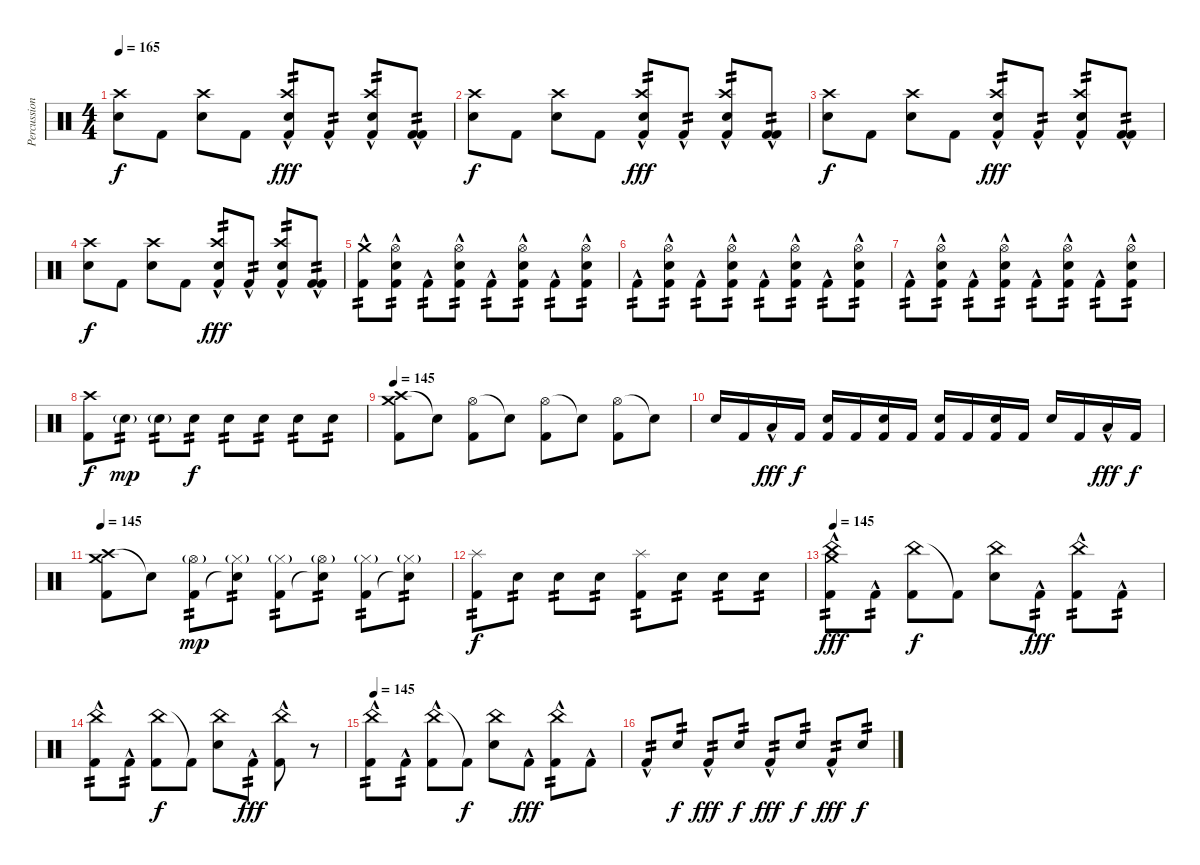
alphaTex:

\track ("Percussion" "Percussion") {instrument percussion}
\staff {score}
\articulation defaults
\ts (4 4)
\tempo 165
\clef neutral
\ks c
("Snare (hit) 2" "Crash high (hit)").8{dy f} "Kick (hit) 2".8 ("Snare (hit) 2" "Crash high (hit)").8 "Kick (hit) 2".8 ("Kick (hit) 2"{hac} "Snare (hit) 2" "Crash high (hit)").8{tp 2 dy fff} "Kick (hit) 2"{hac}.8{tp 2} ("Kick (hit) 2"{hac} "Snare (hit) 2" "Crash high (hit)").8{tp 2} ("Kick (hit) 2"{hac} "Kick (hit) 2").8{tp 2} |
("Snare (hit) 2" "Crash high (hit)").8{dy f} "Kick (hit) 2".8 ("Snare (hit) 2" "Crash high (hit)").8 "Kick (hit) 2".8 ("Kick (hit) 2"{hac} "Snare (hit) 2" "Crash high (hit)").8{tp 2 dy fff} "Kick (hit) 2"{hac}.8{tp 2} ("Kick (hit) 2"{hac} "Snare (hit) 2" "Crash high (hit)").8{tp 2} ("Kick (hit) 2"{hac} "Kick (hit) 2").8{tp 2} |
("Snare (hit) 2" "Crash high (hit)").8{dy f} "Kick (hit) 2".8 ("Snare (hit) 2" "Crash high (hit)").8 "Kick (hit) 2".8 ("Kick (hit) 2"{hac} "Snare (hit) 2" "Crash high (hit)").8{tp 2 dy fff} "Kick (hit) 2"{hac}.8{tp 2} ("Kick (hit) 2"{hac} "Snare (hit) 2" "Crash high (hit)").8{tp 2} ("Kick (hit) 2"{hac} "Kick (hit) 2").8{tp 2} |
("Snare (hit) 2" "Crash high (hit)").8{dy f} "Kick (hit) 2".8 ("Snare (hit) 2" "Crash high (hit)").8 "Kick (hit) 2".8 ("Kick (hit) 2"{hac} "Snare (hit) 2" "Crash high (hit)").8{tp 2 dy fff} "Kick (hit) 2"{hac}.8{tp 2} ("Kick (hit) 2"{hac} "Snare (hit) 2" "Crash high (hit)").8{tp 2} ("Kick (hit) 2"{hac} "Kick (hit) 2").8{tp 2} |
("Crash medium (hit)" "Kick (hit) 2"{hac}).8{tp 2} ("Hi-Hat (open)" "Snare (hit) 2" "Kick (hit) 2"{hac}).8{tp 2} "Kick (hit) 2"{hac}.8{tp 2} ("Hi-Hat (open)" "Snare (hit) 2" "Kick (hit) 2"{hac}).8{tp 2} "Kick (hit) 2"{hac}.8{tp 2} ("Hi-Hat (open)" "Snare (hit) 2" "Kick (hit) 2"{hac}).8{tp 2} "Kick (hit) 2"{hac}.8{tp 2} ("Hi-Hat (open)" "Snare (hit) 2" "Kick (hit) 2"{hac}).8{tp 2} |
"Kick (hit) 2"{hac}.8{tp 2} ("Hi-Hat (open)" "Snare (hit) 2" "Kick (hit) 2"{hac}).8{tp 2} "Kick (hit) 2"{hac}.8{tp 2} ("Hi-Hat (open)" "Snare (hit) 2" "Kick (hit) 2"{hac}).8{tp 2} "Kick (hit) 2"{hac}.8{tp 2} ("Hi-Hat (open)" "Snare (hit) 2" "Kick (hit) 2"{hac}).8{tp 2} "Kick (hit) 2"{hac}.8{tp 2} ("Hi-Hat (open)" "Snare (hit) 2" "Kick (hit) 2"{hac}).8{tp 2} |
"Kick (hit) 2"{hac}.8{tp 2} ("Hi-Hat (open)" "Snare (hit) 2" "Kick (hit) 2"{hac}).8{tp 2} "Kick (hit) 2"{hac}.8{tp 2} ("Hi-Hat (open)" "Snare (hit) 2" "Kick (hit) 2"{hac}).8{tp 2} "Kick (hit) 2"{hac}.8{tp 2} ("Hi-Hat (open)" "Snare (hit) 2" "Kick (hit) 2"{hac}).8{tp 2} "Kick (hit) 2"{hac}.8{tp 2} ("Hi-Hat (open)" "Snare (hit) 2" "Kick (hit) 2"{hac}).8{tp 2} |
("Kick (hit) 2" "Crash high (hit)").8{dy f} "Snare (hit) 2"{g}.8{tp 2 dy mp} "Snare (hit) 2"{g}.8{tp 2} "Snare (hit) 2".8{tp 2 dy f} "Snare (hit) 2".8{tp 2} "Snare (hit) 2".8{tp 2} "Snare (hit) 2".8{tp 2} "Snare (hit) 2".8{tp 2} |
\tempo 145
("Crash high (hit)" "Crash medium (hit)" "Kick (hit) 2").8 "Snare (hit)"{t}.8 ("Hi-Hat (open)" "Kick (hit) 2").8 "Snare (hit)"{t}.8 ("Hi-Hat (open)" "Kick (hit) 2").8 "Snare (hit)"{t}.8 ("Hi-Hat (open)" "Kick (hit) 2").8 "Snare (hit)"{t}.8 |
"Snare (hit) 2".16 "Kick (hit) 2".16 "Low Tom (hit)"{hac}.16{dy fff} "Kick (hit) 2".16{dy f} ("Snare (hit) 2" "Kick (hit) 2").16 "Kick (hit) 2".16 ("Snare (hit) 2" "Kick (hit) 2").16 "Kick (hit) 2".16 ("Snare (hit) 2" "Kick (hit) 2").16 "Kick (hit) 2".16 ("Snare (hit) 2" "Kick (hit) 2").16 "Kick (hit) 2".16 "Snare (hit) 2".16 "Kick (hit) 2".16 "Low Tom (hit)"{hac}.16{dy fff} "Kick (hit) 2".16{dy f} |
\tempo 145
("Crash high (hit)" "Crash medium (hit)" "Kick (hit) 2").8 "Snare (hit)"{t}.8 ("Hi-Hat (open)"{g} "Kick (hit) 2").8{tp 2 dy mp} ("Hi-Hat (closed)"{g} "Snare (hit)"{t}).8{tp 2} ("Hi-Hat (closed)"{g} "Kick (hit) 2").8{tp 2} ("Hi-Hat (open)"{g} "Snare (hit)"{t}).8{tp 2} ("Hi-Hat (closed)"{g} "Kick (hit) 2").8{tp 2} ("Hi-Hat (closed)"{g} "Snare (hit)"{t}).8{tp 2} |
("Kick (hit) 2" "Splash (hit)").8{tp 2 dy f} "Snare (hit) 2".8{tp 2} "Snare (hit) 2".8{tp 2} "Snare (hit) 2".8{tp 2} ("Kick (hit) 2" "Splash (hit)").8{tp 2} "Snare (hit) 2".8{tp 2} "Snare (hit) 2".8{tp 2} "Snare (hit) 2".8{tp 2} |
\tempo 145
("China (hit)" "Crash medium (hit)" "Kick (hit) 2"{hac}).8{tp 2 dy fff} "Kick (hit) 2"{hac}.8{tp 2} ("China (hit)" "Kick (hit) 2").8{dy f} "Kick (hit) 2"{t}.8 ("China (hit)" "Snare (hit) 2").8 "Kick (hit) 2"{hac}.8{tp 2 dy fff} ("China (hit)" "Kick (hit) 2"{hac}).8{tp 2} "Kick (hit) 2"{hac}.8{tp 2} |
("China (hit)" "Kick (hit) 2"{hac}).8{tp 2} "Kick (hit) 2"{hac}.8{tp 2} ("China (hit)" "Kick (hit) 2").8{dy f} "Kick (hit) 2"{t}.8 ("China (hit)" "Snare (hit) 2").8 "Kick (hit) 2"{hac}.8{tp 2 dy fff} ("China (hit)" "Kick (hit) 2"{hac}).8 r.8 |
\tempo 145
("China (hit)" "Kick (hit) 2"{hac}).8{tp 2} "Kick (hit) 2"{hac}.8{tp 2} ("China (hit)" "Kick (hit) 2"{hac}).8 "Kick (hit) 2"{t}.8{dy f} ("China (hit)" "Snare (hit) 2").8 "Kick (hit) 2"{hac}.8{dy fff} ("China (hit)" "Kick (hit) 2"{hac}).8{tp 2} "Kick (hit) 2"{hac}.8 |
"Kick (hit) 2"{hac}.8{tp 2} "Snare (hit) 2".8{tp 2 dy f} "Kick (hit) 2"{hac}.8{tp 2 dy fff} "Snare (hit) 2".8{tp 2 dy f} "Kick (hit) 2"{hac}.8{tp 2 dy fff} "Snare (hit) 2".8{tp 2 dy f} "Kick (hit) 2"{hac}.8{tp 2 dy fff} "Snare (hit) 2".8{tp 2 dy f}
